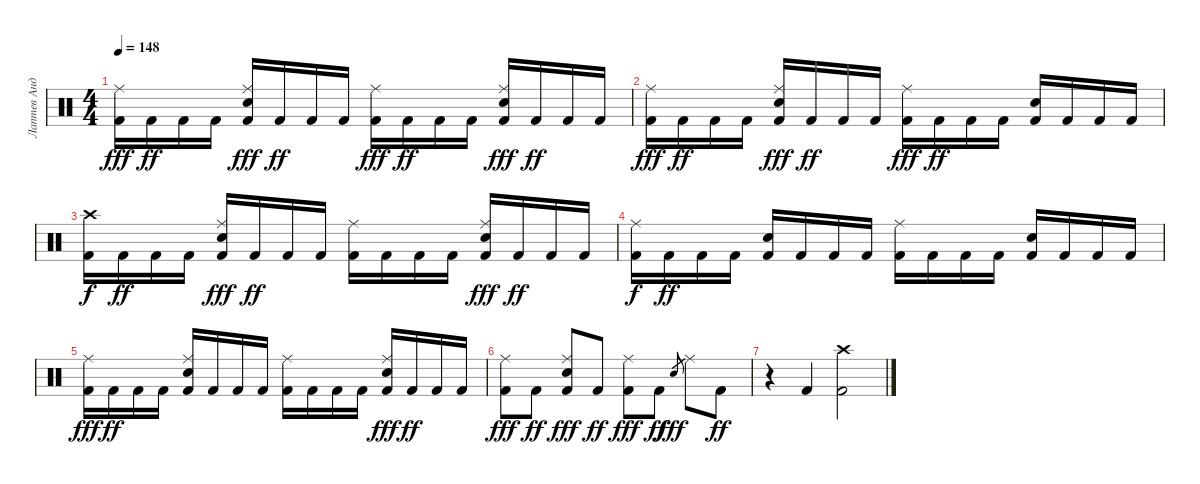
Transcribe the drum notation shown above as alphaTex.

\track ("Лаптев Андрей" "Лаптев Анд") {instrument percussion}
\staff {score}
\articulation defaults
\ts (4 4)
\tempo 148
\clef neutral
\ks c
("Kick (hit) 2" "Ride (middle)").16{dy fff} "Kick (hit) 2".16{dy ff} "Kick (hit) 2".16 "Kick (hit) 2".16 ("Kick (hit) 2" "Electric Snare (hit)" "Ride (middle)").16{dy fff} "Kick (hit) 2".16{dy ff} "Kick (hit) 2".16 "Kick (hit) 2".16 ("Kick (hit) 2" "Ride (middle)").16{dy fff} "Kick (hit) 2".16{dy ff} "Kick (hit) 2".16 "Kick (hit) 2".16 ("Electric Snare (hit)" "Kick (hit) 2" "Ride (middle)").16{dy fff} "Kick (hit) 2".16{dy ff} "Kick (hit) 2".16 "Kick (hit) 2".16 |
("Kick (hit) 2" "Ride (middle)").16{dy fff} "Kick (hit) 2".16{dy ff} "Kick (hit) 2".16 "Kick (hit) 2".16 ("Electric Snare (hit)" "Kick (hit) 2" "Ride (middle)").16{dy fff} "Kick (hit) 2".16{dy ff} "Kick (hit) 2".16 "Kick (hit) 2".16 ("Kick (hit) 2" "Ride (middle)").16{dy fff} "Kick (hit) 2".16{dy ff} "Kick (hit) 2".16 "Kick (hit) 2".16 ("Kick (hit) 2" "Electric Snare (hit)").16 "Kick (hit) 2".16 "Kick (hit) 2".16 "Kick (hit) 2".16 |
("Crash high (hit)" "Kick (hit) 2").16{dy f} "Kick (hit) 2".16{dy ff} "Kick (hit) 2".16 "Kick (hit) 2".16 ("Kick (hit) 2" "Electric Snare (hit)" "Ride (middle)").16{dy fff} "Kick (hit) 2".16{dy ff} "Kick (hit) 2".16 "Kick (hit) 2".16 ("Ride (middle)" "Kick (hit) 2").16 "Kick (hit) 2".16 "Kick (hit) 2".16 "Kick (hit) 2".16 ("Electric Snare (hit)" "Kick (hit) 2" "Ride (middle)").16{dy fff} "Kick (hit) 2".16{dy ff} "Kick (hit) 2".16 "Kick (hit) 2".16 |
("Ride (middle)" "Kick (hit) 2").16{dy f} "Kick (hit) 2".16{dy ff} "Kick (hit) 2".16 "Kick (hit) 2".16 ("Kick (hit) 2" "Electric Snare (hit)").16 "Kick (hit) 2".16 "Kick (hit) 2".16 "Kick (hit) 2".16 ("Kick (hit) 2" "Ride (middle)").16 "Kick (hit) 2".16 "Kick (hit) 2".16 "Kick (hit) 2".16 ("Electric Snare (hit)" "Kick (hit) 2").16 "Kick (hit) 2".16 "Kick (hit) 2".16 "Kick (hit) 2".16 |
("Kick (hit) 2" "Ride (middle)").16{dy fff} "Kick (hit) 2".16{dy ff} "Kick (hit) 2".16 "Kick (hit) 2".16 ("Electric Snare (hit)" "Ride (middle)" "Kick (hit) 2").16 "Kick (hit) 2".16 "Kick (hit) 2".16 "Kick (hit) 2".16 ("Ride (middle)" "Kick (hit) 2").16 "Kick (hit) 2".16 "Kick (hit) 2".16 "Kick (hit) 2".16 ("Electric Snare (hit)" "Kick (hit) 2" "Ride (middle)").16{dy fff} "Kick (hit) 2".16{dy ff} "Kick (hit) 2".16 "Kick (hit) 2".16 |
("Kick (hit) 2" "Ride (middle)").8{dy fff} "Kick (hit) 2".8{dy ff} ("Kick (hit) 2" "Electric Snare (hit)" "Ride (middle)").8{dy fff} "Kick (hit) 2".8{dy ff} ("Kick (hit) 2" "Ride (middle)").8{dy fff} "Kick (hit) 2".8{dy ff} "Electric Snare (hit)".8{gr dy fff} "Ride (middle)".8 "Kick (hit) 2".8{dy ff} |
r.4 "Kick (hit) 2".4 ("Crash high (hit)" "Kick (hit) 2").2
